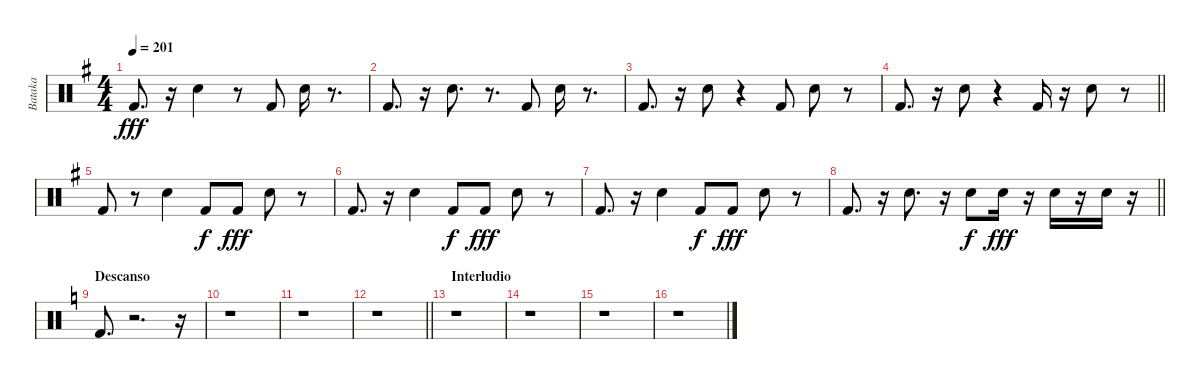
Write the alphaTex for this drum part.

\track ("Bataka" "Bataka") {instrument percussion}
\staff {score}
\articulation defaults
\ts (4 4)
\tempo 201
\clef neutral
\ks g "Kick (hit) 2".8{d dy fff}
r.16 "Electric Snare (hit)".4 r.8 "Kick (hit) 2".8 "Electric Snare (hit)".16 r.8{d} |
"Kick (hit) 2".8{d} r.16 "Electric Snare (hit)".8{d} r.8{d} "Kick (hit) 2".8 "Electric Snare (hit)".16 r.8{d} |
"Kick (hit) 2".8{d} r.16 "Electric Snare (hit)".8 r.4 "Kick (hit) 2".8 "Electric Snare (hit)".8 r.8 |
\barLineRight lightlight "Kick (hit) 2".8{d}
r.16 "Electric Snare (hit)".8 r.4 "Kick (hit) 2".16 r.16 "Electric Snare (hit)".8 r.8 |
"Kick (hit) 2".8 r.8 "Electric Snare (hit)".4 "Kick (hit) 2".8{dy f} "Kick (hit) 2".8{dy fff} "Electric Snare (hit)".8 r.8 |
"Kick (hit) 2".8{d} r.16 "Electric Snare (hit)".4 "Kick (hit) 2".8{dy f} "Kick (hit) 2".8{dy fff} "Electric Snare (hit)".8 r.8 |
"Kick (hit) 2".8{d} r.16 "Electric Snare (hit)".4 "Kick (hit) 2".8{dy f} "Kick (hit) 2".8{dy fff} "Electric Snare (hit)".8 r.8 |
\barLineRight lightlight "Kick (hit) 2".8{d}
r.16 "Electric Snare (hit)".8{d} r.16 "Electric Snare (hit)".8{dy f} "Electric Snare (hit)".16{dy fff} r.16 "Electric Snare (hit)".16 r.16 "Electric Snare (hit)".16 r.16 |
\section ("" "Descanso")
\ks c "Kick (hit) 2".8{d}
r.2{d} r.16 |
r.1 |
r.1 |
\barLineRight lightlight
r.1 |
\section ("" "Interludio")
r.1 |
r.1 |
r.1 |
r.1
